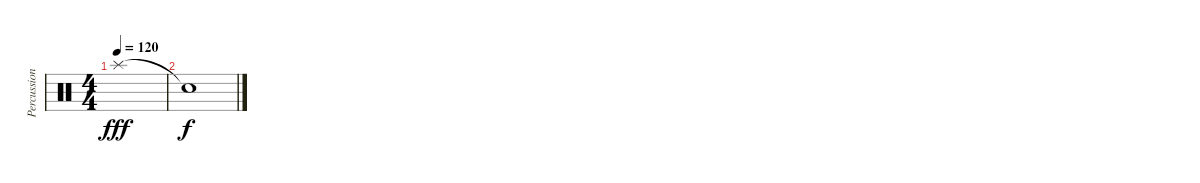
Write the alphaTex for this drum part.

\track ("Percussions" "Percussion") {instrument percussion}
\staff {score}
\articulation defaults
\ts (4 4)
\tempo 120
\clef neutral
\ks c "Splash (hit)".1{dy fff}
|
"Snare (hit)"{t}.1{dy f}
